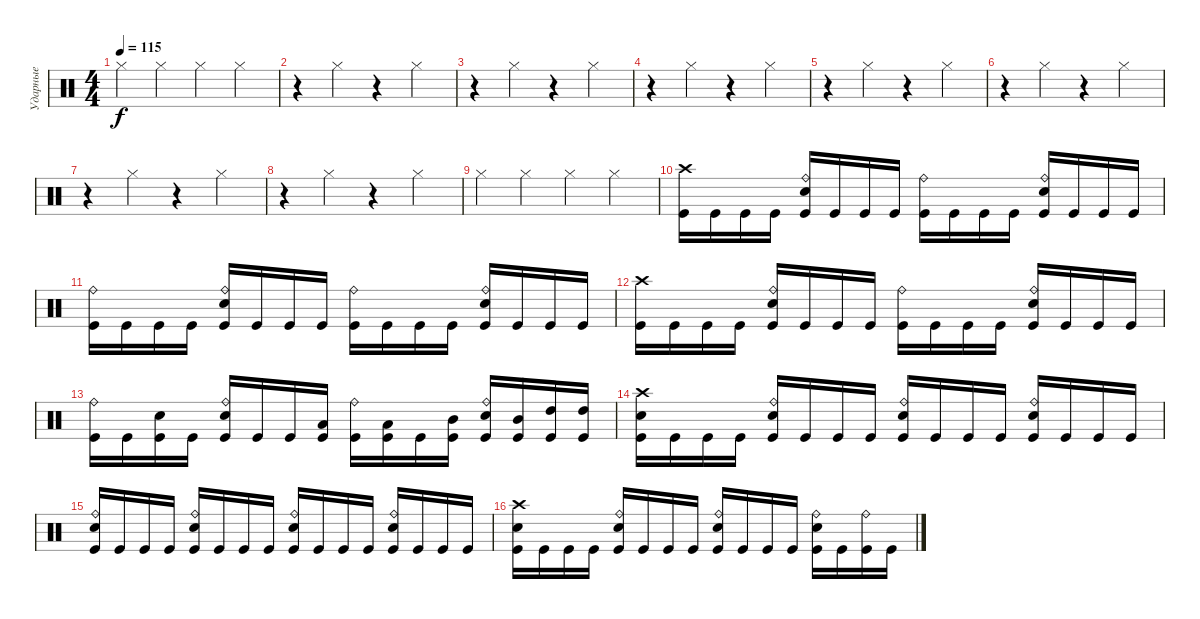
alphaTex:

\track ("Ударные" "Ударные") {instrument percussion}
\staff {score}
\articulation defaults
\ts (4 4)
\tempo 115
\clef neutral
\ks c "Hi-Hat (closed)".4{dy f} "Hi-Hat (closed)".4 "Hi-Hat (closed)".4 "Hi-Hat (closed)".4
|
r.4 "Hi-Hat (closed)".4 r.4 "Hi-Hat (closed)".4 |
r.4 "Hi-Hat (closed)".4 r.4 "Hi-Hat (closed)".4 |
r.4 "Hi-Hat (closed)".4 r.4 "Hi-Hat (closed)".4 |
r.4 "Hi-Hat (closed)".4 r.4 "Hi-Hat (closed)".4 |
r.4 "Hi-Hat (closed)".4 r.4 "Hi-Hat (closed)".4 |
r.4 "Hi-Hat (closed)".4 r.4 "Hi-Hat (closed)".4 |
r.4 "Hi-Hat (closed)".4 r.4 "Hi-Hat (closed)".4 |
"Hi-Hat (closed)".4 "Hi-Hat (closed)".4 "Hi-Hat (closed)".4 "Hi-Hat (closed)".4 |
("Crash high (hit)" "Kick (hit)").16 "Kick (hit)".16 "Kick (hit)".16 "Kick (hit)".16 ("Ride (bell)" "Electric Snare (hit)" "Kick (hit)").16 "Kick (hit)".16 "Kick (hit)".16 "Kick (hit)".16 ("Ride (bell)" "Kick (hit)").16 "Kick (hit)".16 "Kick (hit)".16 "Kick (hit)".16 ("Ride (bell)" "Electric Snare (hit)" "Kick (hit)").16 "Kick (hit)".16 "Kick (hit)".16 "Kick (hit)".16 |
("Ride (bell)" "Kick (hit)").16 "Kick (hit)".16 "Kick (hit)".16 "Kick (hit)".16 ("Ride (bell)" "Electric Snare (hit)" "Kick (hit)").16 "Kick (hit)".16 "Kick (hit)".16 "Kick (hit)".16 ("Ride (bell)" "Kick (hit)").16 "Kick (hit)".16 "Kick (hit)".16 "Kick (hit)".16 ("Ride (bell)" "Electric Snare (hit)" "Kick (hit)").16 "Kick (hit)".16 "Kick (hit)".16 "Kick (hit)".16 |
("Crash high (hit)" "Kick (hit)").16 "Kick (hit)".16 "Kick (hit)".16 "Kick (hit)".16 ("Ride (bell)" "Electric Snare (hit)" "Kick (hit)").16 "Kick (hit)".16 "Kick (hit)".16 "Kick (hit)".16 ("Ride (bell)" "Kick (hit)").16 "Kick (hit)".16 "Kick (hit)".16 "Kick (hit)".16 ("Ride (bell)" "Electric Snare (hit)" "Kick (hit)").16 "Kick (hit)".16 "Kick (hit)".16 "Kick (hit)".16 |
("Ride (bell)" "Kick (hit)").16 "Kick (hit)".16 ("Electric Snare (hit)" "Kick (hit)").16 "Kick (hit)".16 ("Ride (bell)" "Electric Snare (hit)" "Kick (hit)").16 "Kick (hit)".16 "Kick (hit)".16 ("Low Tom (hit)" "Kick (hit)").16 ("Ride (bell)" "Kick (hit)").16 ("Low Tom (hit)" "Kick (hit)").16 "Kick (hit)".16 ("Mid Tom (hit)" "Kick (hit)").16 ("Ride (bell)" "Electric Snare (hit)" "Kick (hit)").16 ("Mid Tom (hit)" "Kick (hit)").16 ("High Tom (hit)" "Kick (hit)").16 ("High Tom (hit)" "Kick (hit)").16 |
("Crash high (hit)" "Electric Snare (hit)" "Kick (hit)").16 "Kick (hit)".16 "Kick (hit)".16 "Kick (hit)".16 ("Ride (bell)" "Electric Snare (hit)" "Kick (hit)").16 "Kick (hit)".16 "Kick (hit)".16 "Kick (hit)".16 ("Ride (bell)" "Electric Snare (hit)" "Kick (hit)").16 "Kick (hit)".16 "Kick (hit)".16 "Kick (hit)".16 ("Ride (bell)" "Electric Snare (hit)" "Kick (hit)").16 "Kick (hit)".16 "Kick (hit)".16 "Kick (hit)".16 |
("Ride (bell)" "Electric Snare (hit)" "Kick (hit)").16 "Kick (hit)".16 "Kick (hit)".16 "Kick (hit)".16 ("Ride (bell)" "Electric Snare (hit)" "Kick (hit)").16 "Kick (hit)".16 "Kick (hit)".16 "Kick (hit)".16 ("Ride (bell)" "Electric Snare (hit)" "Kick (hit)").16 "Kick (hit)".16 "Kick (hit)".16 "Kick (hit)".16 ("Ride (bell)" "Electric Snare (hit)" "Kick (hit)").16 "Kick (hit)".16 "Kick (hit)".16 "Kick (hit)".16 |
("Crash high (hit)" "Electric Snare (hit)" "Kick (hit)").16 "Kick (hit)".16 "Kick (hit)".16 "Kick (hit)".16 ("Ride (bell)" "Electric Snare (hit)" "Kick (hit)").16 "Kick (hit)".16 "Kick (hit)".16 "Kick (hit)".16 ("Ride (bell)" "Electric Snare (hit)" "Kick (hit)").16 "Kick (hit)".16 "Kick (hit)".16 "Kick (hit)".16 ("Ride (bell)" "Electric Snare (hit)" "Kick (hit)").16 "Kick (hit)".16 ("Ride (bell)" "Kick (hit)").16 "Kick (hit)".16
